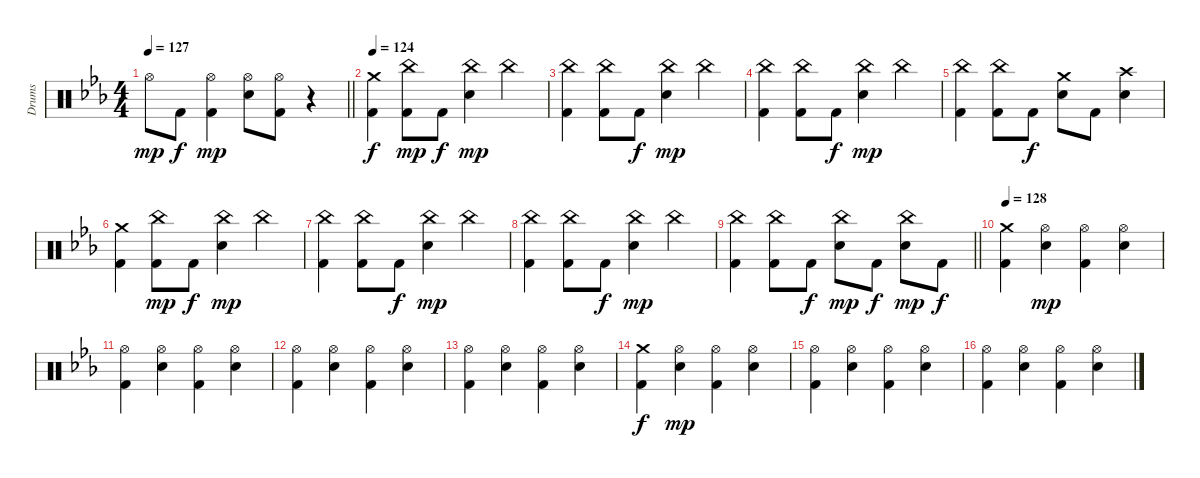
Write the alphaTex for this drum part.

\track ("Drums" "Drums") {instrument percussion}
\staff {score}
\articulation defaults
\ts (4 4)
\tempo 127
\clef neutral
\barLineRight lightlight
\ks cminor "Hi-Hat (open)".8{dy mp} "Kick (hit) 2".8{dy f}
("Hi-Hat (open)" "Kick (hit) 2").4{dy mp} ("Hi-Hat (open)" "Electric Snare (hit)").8 ("Hi-Hat (open)" "Kick (hit) 2").8 r.4 |
\tempo 124
("Crash medium (hit)" "Kick (hit) 2").4{dy f} ("China (hit)" "Kick (hit) 2").8{dy mp} "Kick (hit) 2".8{dy f} ("China (hit)" "Electric Snare (hit)").4{dy mp} "China (hit)".4 |
("China (hit)" "Kick (hit) 2").4 ("China (hit)" "Kick (hit) 2").8 "Kick (hit) 2".8{dy f} ("China (hit)" "Electric Snare (hit)").4{dy mp} "China (hit)".4 |
("China (hit)" "Kick (hit) 2").4 ("China (hit)" "Kick (hit) 2").8 "Kick (hit) 2".8{dy f} ("China (hit)" "Electric Snare (hit)").4{dy mp} "China (hit)".4 |
("China (hit)" "Kick (hit) 2").4 ("China (hit)" "Kick (hit) 2").8 "Kick (hit) 2".8{dy f} ("Crash medium (hit)" "Electric Snare (hit)").8 "Kick (hit) 2".8 ("Crash high (hit)" "Electric Snare (hit)").4 |
("Crash medium (hit)" "Kick (hit) 2").4 ("China (hit)" "Kick (hit) 2").8{dy mp} "Kick (hit) 2".8{dy f} ("China (hit)" "Electric Snare (hit)").4{dy mp} "China (hit)".4 |
("China (hit)" "Kick (hit) 2").4 ("China (hit)" "Kick (hit) 2").8 "Kick (hit) 2".8{dy f} ("China (hit)" "Electric Snare (hit)").4{dy mp} "China (hit)".4 |
("China (hit)" "Kick (hit) 2").4 ("China (hit)" "Kick (hit) 2").8 "Kick (hit) 2".8{dy f} ("China (hit)" "Electric Snare (hit)").4{dy mp} "China (hit)".4 |
\barLineRight lightlight
("China (hit)" "Kick (hit) 2").4 ("China (hit)" "Kick (hit) 2").8 "Kick (hit) 2".8{dy f} ("China (hit)" "Electric Snare (hit)").8{dy mp} "Kick (hit) 2".8{dy f} ("China (hit)" "Electric Snare (hit)").8{dy mp} "Kick (hit) 2".8{dy f} |
\tempo 128
("Crash medium (hit)" "Kick (hit) 2").4 ("Hi-Hat (open)" "Electric Snare (hit)").4{dy mp} ("Hi-Hat (open)" "Kick (hit) 2").4 ("Hi-Hat (open)" "Electric Snare (hit)").4 |
("Hi-Hat (open)" "Kick (hit) 2").4 ("Hi-Hat (open)" "Electric Snare (hit)").4 ("Hi-Hat (open)" "Kick (hit) 2").4 ("Hi-Hat (open)" "Electric Snare (hit)").4 |
("Hi-Hat (open)" "Kick (hit) 2").4 ("Hi-Hat (open)" "Electric Snare (hit)").4 ("Hi-Hat (open)" "Kick (hit) 2").4 ("Hi-Hat (open)" "Electric Snare (hit)").4 |
("Hi-Hat (open)" "Kick (hit) 2").4 ("Hi-Hat (open)" "Electric Snare (hit)").4 ("Hi-Hat (open)" "Kick (hit) 2").4 ("Hi-Hat (open)" "Electric Snare (hit)").4 |
("Crash medium (hit)" "Kick (hit) 2").4{dy f} ("Hi-Hat (open)" "Electric Snare (hit)").4{dy mp} ("Hi-Hat (open)" "Kick (hit) 2").4 ("Hi-Hat (open)" "Electric Snare (hit)").4 |
("Hi-Hat (open)" "Kick (hit) 2").4 ("Hi-Hat (open)" "Electric Snare (hit)").4 ("Hi-Hat (open)" "Kick (hit) 2").4 ("Hi-Hat (open)" "Electric Snare (hit)").4 |
("Hi-Hat (open)" "Kick (hit) 2").4 ("Hi-Hat (open)" "Electric Snare (hit)").4 ("Hi-Hat (open)" "Kick (hit) 2").4 ("Hi-Hat (open)" "Electric Snare (hit)").4
